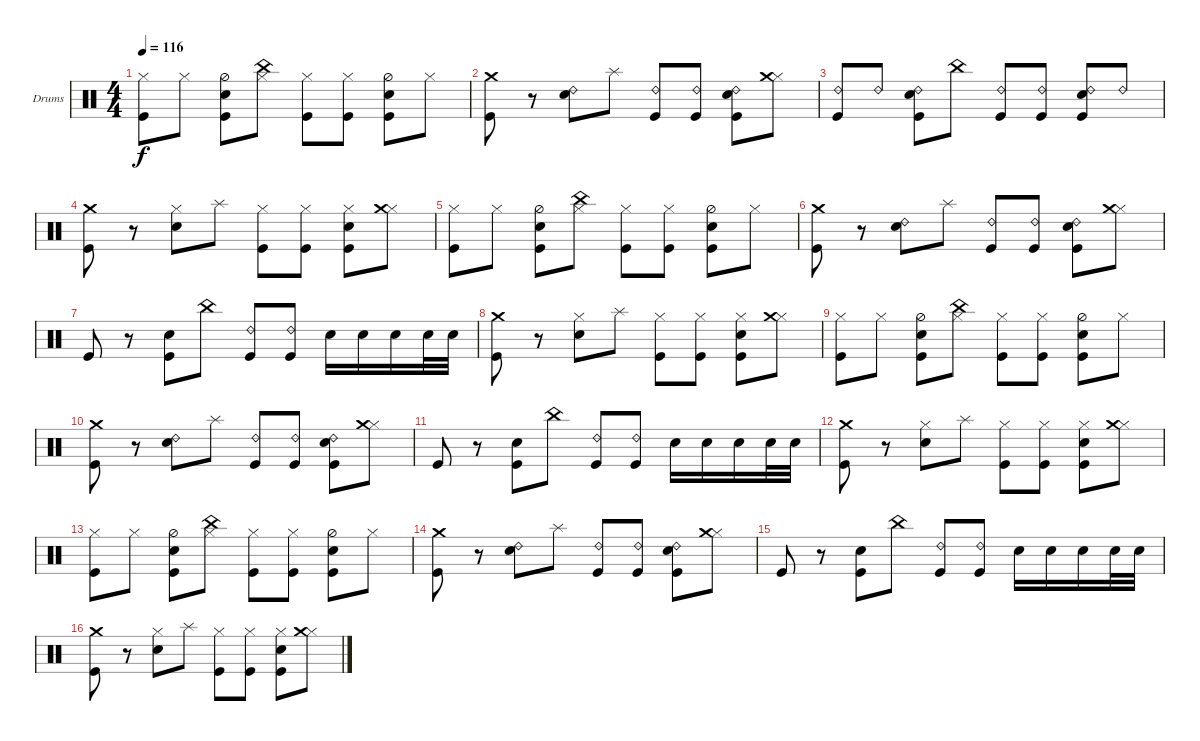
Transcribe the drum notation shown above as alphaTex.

\bracketExtendMode groupsimilarinstruments
\firstSystemTrackNameOrientation horizontal
\otherSystemsTrackNameOrientation horizontal
\track ("Mick Brown" "Drums") {instrument percussion}
\staff {score}
\articulation defaults
\ts (4 4)
\tempo 116
\clef neutral
\ks c
("Kick (hit)" "Hi-Hat (closed)").8{dy f} "Hi-Hat (closed)".8 ("Snare (hit) 2" "Kick (hit)" "Hi-Hat (half)").8 ("Hi-Hat (closed)" "China (hit)").8 ("Kick (hit)" "Hi-Hat (closed)").8 ("Kick (hit)" "Hi-Hat (closed)").8 ("Snare (hit) 2" "Kick (hit)" "Hi-Hat (half)").8 "Hi-Hat (closed)".8 |
("Kick (hit)" "Crash medium (hit)").8 r.8 ("Snare (hit) 2" "Ride (bell) 2").8 "Splash (hit)".8 ("Kick (hit)" "Ride (bell) 2").8 ("Kick (hit)" "Ride (bell) 2").8 ("Snare (hit) 2" "Kick (hit)" "Ride (bell) 2").8 ("Hi-Hat (closed)" "Crash medium (hit)").8 |
("Kick (hit)" "Ride (bell) 2").8 "Ride (bell) 2".8 ("Snare (hit) 2" "Kick (hit)" "Ride (bell) 2").8 "China (hit)".8 ("Kick (hit)" "Ride (bell) 2").8 ("Kick (hit)" "Ride (bell) 2").8 ("Snare (hit) 2" "Kick (hit)" "Ride (bell) 2").8 "Ride (bell) 2".8 |
("Kick (hit)" "Crash medium (hit)").8 r.8 ("Snare (hit) 2" "Hi-Hat (closed)").8 "Splash (hit)".8 ("Kick (hit)" "Hi-Hat (closed)").8 ("Kick (hit)" "Hi-Hat (closed)").8 ("Snare (hit) 2" "Kick (hit)" "Hi-Hat (closed)").8 ("Hi-Hat (closed)" "Crash medium (hit)").8 |
("Kick (hit)" "Hi-Hat (closed)").8 "Hi-Hat (closed)".8 ("Snare (hit) 2" "Kick (hit)" "Hi-Hat (half)").8 ("Hi-Hat (closed)" "China (hit)").8 ("Kick (hit)" "Hi-Hat (closed)").8 ("Kick (hit)" "Hi-Hat (closed)").8 ("Snare (hit) 2" "Kick (hit)" "Hi-Hat (half)").8 "Hi-Hat (closed)".8 |
("Kick (hit)" "Crash medium (hit)").8 r.8 ("Snare (hit) 2" "Ride (bell) 2").8 "Splash (hit)".8 ("Kick (hit)" "Ride (bell) 2").8 ("Kick (hit)" "Ride (bell) 2").8 ("Snare (hit) 2" "Kick (hit)" "Ride (bell) 2").8 ("Hi-Hat (closed)" "Crash medium (hit)").8 |
"Kick (hit)".8 r.8 ("Snare (hit) 2" "Kick (hit)").8 "China (hit)".8 ("Kick (hit)" "Ride (bell) 2").8 ("Kick (hit)" "Ride (bell) 2").8 "Snare (hit) 2".16 "Snare (hit) 2".16 "Snare (hit) 2".16 "Snare (hit) 2".32 "Snare (hit) 2".32 |
("Kick (hit)" "Crash medium (hit)").8 r.8 ("Snare (hit) 2" "Hi-Hat (closed)").8 "Splash (hit)".8 ("Kick (hit)" "Hi-Hat (closed)").8 ("Kick (hit)" "Hi-Hat (closed)").8 ("Snare (hit) 2" "Kick (hit)" "Hi-Hat (closed)").8 ("Hi-Hat (closed)" "Crash medium (hit)").8 |
("Kick (hit)" "Hi-Hat (closed)").8 "Hi-Hat (closed)".8 ("Snare (hit) 2" "Kick (hit)" "Hi-Hat (half)").8 ("Hi-Hat (closed)" "China (hit)").8 ("Kick (hit)" "Hi-Hat (closed)").8 ("Kick (hit)" "Hi-Hat (closed)").8 ("Snare (hit) 2" "Kick (hit)" "Hi-Hat (half)").8 "Hi-Hat (closed)".8 |
("Kick (hit)" "Crash medium (hit)").8 r.8 ("Snare (hit) 2" "Ride (bell) 2").8 "Splash (hit)".8 ("Kick (hit)" "Ride (bell) 2").8 ("Kick (hit)" "Ride (bell) 2").8 ("Snare (hit) 2" "Kick (hit)" "Ride (bell) 2").8 ("Hi-Hat (closed)" "Crash medium (hit)").8 |
"Kick (hit)".8 r.8 ("Snare (hit) 2" "Kick (hit)").8 "China (hit)".8 ("Kick (hit)" "Ride (bell) 2").8 ("Kick (hit)" "Ride (bell) 2").8 "Snare (hit) 2".16 "Snare (hit) 2".16 "Snare (hit) 2".16 "Snare (hit) 2".32 "Snare (hit) 2".32 |
("Kick (hit)" "Crash medium (hit)").8 r.8 ("Snare (hit) 2" "Hi-Hat (closed)").8 "Splash (hit)".8 ("Kick (hit)" "Hi-Hat (closed)").8 ("Kick (hit)" "Hi-Hat (closed)").8 ("Snare (hit) 2" "Kick (hit)" "Hi-Hat (closed)").8 ("Hi-Hat (closed)" "Crash medium (hit)").8 |
("Kick (hit)" "Hi-Hat (closed)").8 "Hi-Hat (closed)".8 ("Snare (hit) 2" "Kick (hit)" "Hi-Hat (half)").8 ("Hi-Hat (closed)" "China (hit)").8 ("Kick (hit)" "Hi-Hat (closed)").8 ("Kick (hit)" "Hi-Hat (closed)").8 ("Snare (hit) 2" "Kick (hit)" "Hi-Hat (half)").8 "Hi-Hat (closed)".8 |
("Kick (hit)" "Crash medium (hit)").8 r.8 ("Snare (hit) 2" "Ride (bell) 2").8 "Splash (hit)".8 ("Kick (hit)" "Ride (bell) 2").8 ("Kick (hit)" "Ride (bell) 2").8 ("Snare (hit) 2" "Kick (hit)" "Ride (bell) 2").8 ("Hi-Hat (closed)" "Crash medium (hit)").8 |
"Kick (hit)".8 r.8 ("Snare (hit) 2" "Kick (hit)").8 "China (hit)".8 ("Kick (hit)" "Ride (bell) 2").8 ("Kick (hit)" "Ride (bell) 2").8 "Snare (hit) 2".16 "Snare (hit) 2".16 "Snare (hit) 2".16 "Snare (hit) 2".32 "Snare (hit) 2".32 |
("Kick (hit)" "Crash medium (hit)").8 r.8 ("Snare (hit) 2" "Hi-Hat (closed)").8 "Splash (hit)".8 ("Kick (hit)" "Hi-Hat (closed)").8 ("Kick (hit)" "Hi-Hat (closed)").8 ("Snare (hit) 2" "Kick (hit)" "Hi-Hat (closed)").8 ("Hi-Hat (closed)" "Crash medium (hit)").8
